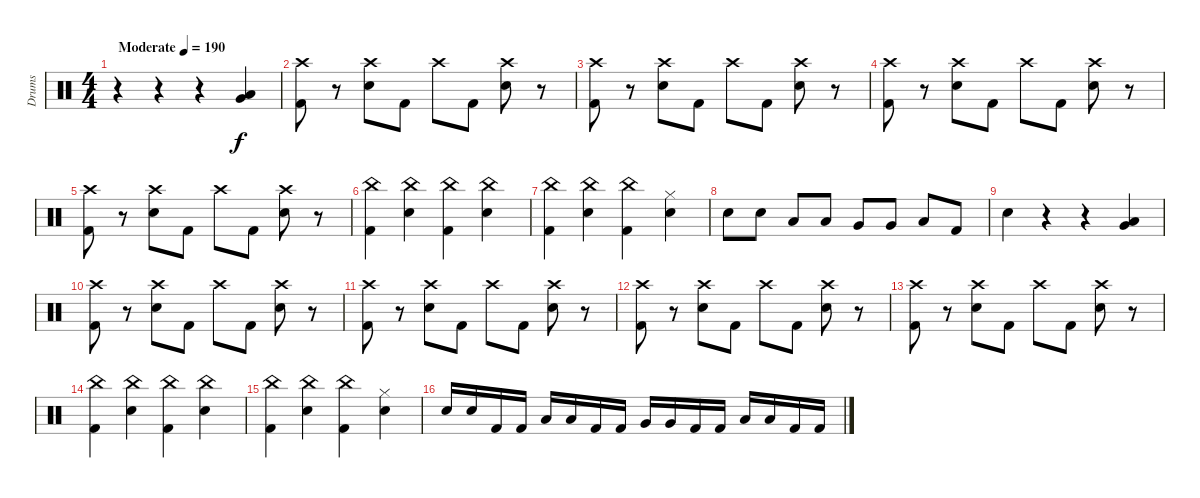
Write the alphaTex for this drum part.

\track ("Drums" "Drums") {instrument percussion}
\staff {score}
\articulation defaults
\ts (4 4)
\tempo (190 "Moderate")
\clef neutral
\ks c
r.4{dy f} r.4 r.4 ("Low Floor Tom (hit)" "Very Low Tom (hit)").4 |
("Crash high (hit)" "Kick (hit) 2").8 r.8 ("Crash high (hit)" "Snare (hit) 2").8 "Kick (hit) 2".8 "Crash high (hit)".8 "Kick (hit) 2".8 ("Crash high (hit)" "Snare (hit) 2").8 r.8 |
("Crash high (hit)" "Kick (hit) 2").8 r.8 ("Crash high (hit)" "Snare (hit) 2").8 "Kick (hit) 2".8 "Crash high (hit)".8 "Kick (hit) 2".8 ("Crash high (hit)" "Snare (hit) 2").8 r.8 |
("Crash high (hit)" "Kick (hit) 2").8 r.8 ("Crash high (hit)" "Snare (hit) 2").8 "Kick (hit) 2".8 "Crash high (hit)".8 "Kick (hit) 2".8 ("Crash high (hit)" "Snare (hit) 2").8 r.8 |
("Crash high (hit)" "Kick (hit) 2").8 r.8 ("Crash high (hit)" "Snare (hit) 2").8 "Kick (hit) 2".8 "Crash high (hit)".8 "Kick (hit) 2".8 ("Crash high (hit)" "Snare (hit) 2").8 r.8 |
("China (hit)" "Kick (hit) 2").4 ("China (hit)" "Snare (hit) 2").4 ("China (hit)" "Kick (hit) 2").4 ("China (hit)" "Snare (hit) 2").4 |
("China (hit)" "Kick (hit) 2").4 ("China (hit)" "Snare (hit) 2").4 ("China (hit)" "Kick (hit) 2").4 ("Hi-Hat (closed)" "Snare (hit) 2").4 |
"Snare (hit) 2".8 "Snare (hit) 2".8 "Low Tom (hit)".8 "Low Tom (hit)".8 "Very Low Tom (hit)".8 "Very Low Tom (hit)".8 "Low Floor Tom (hit)".8 "Kick (hit) 2".8 |
"Snare (hit) 2".4 r.4 r.4 ("Low Floor Tom (hit)" "Very Low Tom (hit)").4 |
("Crash high (hit)" "Kick (hit) 2").8 r.8 ("Crash high (hit)" "Snare (hit) 2").8 "Kick (hit) 2".8 "Crash high (hit)".8 "Kick (hit) 2".8 ("Crash high (hit)" "Snare (hit) 2").8 r.8 |
("Crash high (hit)" "Kick (hit) 2").8 r.8 ("Crash high (hit)" "Snare (hit) 2").8 "Kick (hit) 2".8 "Crash high (hit)".8 "Kick (hit) 2".8 ("Crash high (hit)" "Snare (hit) 2").8 r.8 |
("Crash high (hit)" "Kick (hit) 2").8 r.8 ("Crash high (hit)" "Snare (hit) 2").8 "Kick (hit) 2".8 "Crash high (hit)".8 "Kick (hit) 2".8 ("Crash high (hit)" "Snare (hit) 2").8 r.8 |
("Crash high (hit)" "Kick (hit) 2").8 r.8 ("Crash high (hit)" "Snare (hit) 2").8 "Kick (hit) 2".8 "Crash high (hit)".8 "Kick (hit) 2".8 ("Crash high (hit)" "Snare (hit) 2").8 r.8 |
("China (hit)" "Kick (hit) 2").4 ("China (hit)" "Snare (hit) 2").4 ("China (hit)" "Kick (hit) 2").4 ("China (hit)" "Snare (hit) 2").4 |
("China (hit)" "Kick (hit) 2").4 ("China (hit)" "Snare (hit) 2").4 ("China (hit)" "Kick (hit) 2").4 ("Hi-Hat (closed)" "Snare (hit) 2").4 |
"Snare (hit) 2".16 "Snare (hit) 2".16 "Kick (hit) 2".16 "Kick (hit) 2".16 "Low Tom (hit)".16 "Low Tom (hit)".16 "Kick (hit) 2".16 "Kick (hit) 2".16 "Very Low Tom (hit)".16 "Very Low Tom (hit)".16 "Kick (hit) 2".16 "Kick (hit) 2".16 "Low Floor Tom (hit)".16 "Low Floor Tom (hit)".16 "Kick (hit) 2".16 "Kick (hit) 2".16
